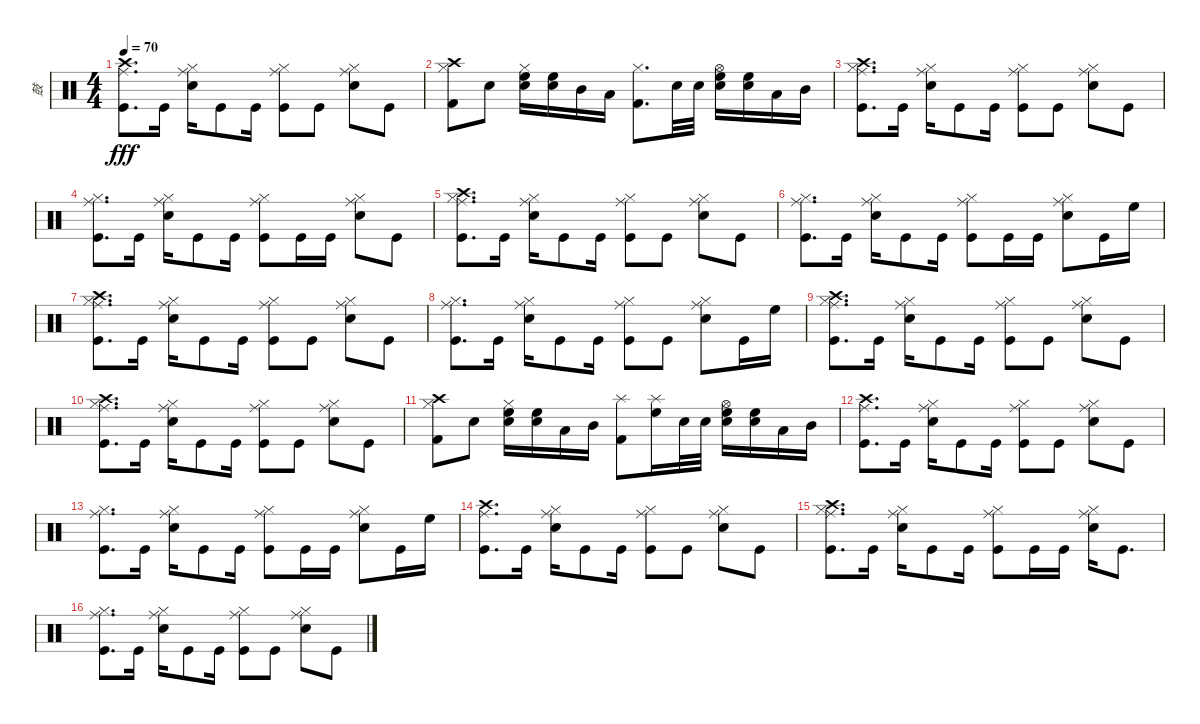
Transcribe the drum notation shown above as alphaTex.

\track ("鼓" "鼓") {instrument percussion}
\staff {score}
\articulation defaults
\ts (4 4)
\tempo 70
\clef neutral
\ks c
("Ride (middle)" "Crash high (hit)" "Kick (hit)").8{d dy fff} "Kick (hit)".16 ("Ride (middle)" "Hi-Hat (closed)" "Electric Snare (hit)").16 "Kick (hit)".8 "Kick (hit)".16 ("Ride (middle)" "Hi-Hat (closed)" "Kick (hit)").8 "Kick (hit)".8 ("Ride (middle)" "Hi-Hat (closed)" "Electric Snare (hit)").8 "Kick (hit)".8 |
("Crash high (hit)" "Hi-Hat (closed)" "Kick (hit) 2").8 "Snare (hit) 2".8 ("Hi-Hat (closed)" "High Floor Tom (hit)" "Electric Snare (hit)").16 ("High Floor Tom (hit)" "Electric Snare (hit)").16 "Mid Tom (hit)".16 "Low Tom (hit)".16 ("Hi-Hat (closed)" "Kick (hit) 2").8{d} "Snare (hit) 2".32 "Snare (hit) 2".32 ("Hi-Hat (open)" "High Floor Tom (hit)" "Electric Snare (hit)").16 ("High Floor Tom (hit)" "Electric Snare (hit)").16 "Low Tom (hit)".16 "Mid Tom (hit)".16 |
("Ride (middle)" "Crash high (hit)" "Hi-Hat (closed)" "Kick (hit)").8{d} "Kick (hit)".16 ("Ride (middle)" "Hi-Hat (closed)" "Electric Snare (hit)").16 "Kick (hit)".8 "Kick (hit)".16 ("Ride (middle)" "Hi-Hat (closed)" "Kick (hit)").8 "Kick (hit)".8 ("Ride (middle)" "Hi-Hat (closed)" "Electric Snare (hit)").8 "Kick (hit)".8 |
("Ride (middle)" "Hi-Hat (closed)" "Kick (hit)").8{d} "Kick (hit)".16 ("Ride (middle)" "Hi-Hat (closed)" "Electric Snare (hit)").16 "Kick (hit)".8 "Kick (hit)".16 ("Ride (middle)" "Hi-Hat (closed)" "Kick (hit)").8 "Kick (hit)".16 "Kick (hit)".16 ("Ride (middle)" "Hi-Hat (closed)" "Electric Snare (hit)").8 "Kick (hit)".8 |
("Ride (middle)" "Crash high (hit)" "Hi-Hat (closed)" "Kick (hit)").8{d} "Kick (hit)".16 ("Ride (middle)" "Hi-Hat (closed)" "Electric Snare (hit)").16 "Kick (hit)".8 "Kick (hit)".16 ("Ride (middle)" "Hi-Hat (closed)" "Kick (hit)").8 "Kick (hit)".8 ("Ride (middle)" "Hi-Hat (closed)" "Electric Snare (hit)").8 "Kick (hit)".8 |
("Ride (middle)" "Hi-Hat (closed)" "Kick (hit)").8{d} "Kick (hit)".16 ("Ride (middle)" "Hi-Hat (closed)" "Electric Snare (hit)").16 "Kick (hit)".8 "Kick (hit)".16 ("Ride (middle)" "Hi-Hat (closed)" "Kick (hit)").8 "Kick (hit)".16 "Kick (hit)".16 ("Ride (middle)" "Hi-Hat (closed)" "Electric Snare (hit)").8 "Kick (hit)".16 "High Floor Tom (hit)".16 |
("Ride (middle)" "Crash high (hit)" "Hi-Hat (closed)" "Kick (hit)").8{d} "Kick (hit)".16 ("Ride (middle)" "Hi-Hat (closed)" "Electric Snare (hit)").16 "Kick (hit)".8 "Kick (hit)".16 ("Ride (middle)" "Hi-Hat (closed)" "Kick (hit)").8 "Kick (hit)".8 ("Ride (middle)" "Hi-Hat (closed)" "Electric Snare (hit)").8 "Kick (hit)".8 |
("Ride (middle)" "Hi-Hat (closed)" "Kick (hit)").8{d} "Kick (hit)".16 ("Ride (middle)" "Hi-Hat (closed)" "Electric Snare (hit)").16 "Kick (hit)".8 "Kick (hit)".16 ("Ride (middle)" "Hi-Hat (closed)" "Kick (hit)").8 "Kick (hit)".8 ("Ride (middle)" "Hi-Hat (closed)" "Electric Snare (hit)").8 "Kick (hit)".16 "High Floor Tom (hit)".16 |
("Ride (middle)" "Crash high (hit)" "Hi-Hat (closed)" "Kick (hit)").8{d} "Kick (hit)".16 ("Ride (middle)" "Hi-Hat (closed)" "Electric Snare (hit)").16 "Kick (hit)".8 "Kick (hit)".16 ("Ride (middle)" "Hi-Hat (closed)" "Kick (hit)").8 "Kick (hit)".8 ("Ride (middle)" "Hi-Hat (closed)" "Electric Snare (hit)").8 "Kick (hit)".8 |
("Ride (middle)" "Crash high (hit)" "Hi-Hat (closed)" "Kick (hit)").8{d} "Kick (hit)".16 ("Ride (middle)" "Hi-Hat (closed)" "Electric Snare (hit)").16 "Kick (hit)".8 "Kick (hit)".16 ("Ride (middle)" "Hi-Hat (closed)" "Kick (hit)").8 "Kick (hit)".8 ("Ride (middle)" "Hi-Hat (closed)" "Electric Snare (hit)").8 "Kick (hit)".8 |
("Crash high (hit)" "Hi-Hat (closed)" "Kick (hit) 2").8 "Snare (hit) 2".8 ("Hi-Hat (closed)" "High Floor Tom (hit)" "Electric Snare (hit)").16 ("High Floor Tom (hit)" "Electric Snare (hit)").16 "Low Tom (hit)".16 "Mid Tom (hit)".16 ("Splash (hit)" "Kick (hit) 2").8 ("Splash (hit)" "High Floor Tom (hit)").16 "Snare (hit) 2".32 "Snare (hit) 2".32 ("Hi-Hat (open)" "High Floor Tom (hit)" "Electric Snare (hit)").16 ("High Floor Tom (hit)" "Electric Snare (hit)").16 "Low Tom (hit)".16 "Mid Tom (hit)".16 |
("Ride (middle)" "Crash high (hit)" "Kick (hit)").8{d} "Kick (hit)".16 ("Ride (middle)" "Hi-Hat (closed)" "Electric Snare (hit)").16 "Kick (hit)".8 "Kick (hit)".16 ("Ride (middle)" "Hi-Hat (closed)" "Kick (hit)").8 "Kick (hit)".8 ("Ride (middle)" "Hi-Hat (closed)" "Electric Snare (hit)").8 "Kick (hit)".8 |
("Ride (middle)" "Hi-Hat (closed)" "Kick (hit)").8{d} "Kick (hit)".16 ("Ride (middle)" "Hi-Hat (closed)" "Electric Snare (hit)").16 "Kick (hit)".8 "Kick (hit)".16 ("Ride (middle)" "Hi-Hat (closed)" "Kick (hit)").8 "Kick (hit)".16 "Kick (hit)".16 ("Ride (middle)" "Hi-Hat (closed)" "Electric Snare (hit)").8 "Kick (hit)".16 "High Floor Tom (hit)".16 |
("Ride (middle)" "Crash high (hit)" "Kick (hit)").8{d} "Kick (hit)".16 ("Ride (middle)" "Hi-Hat (closed)" "Electric Snare (hit)").16 "Kick (hit)".8 "Kick (hit)".16 ("Ride (middle)" "Hi-Hat (closed)" "Kick (hit)").8 "Kick (hit)".8 ("Ride (middle)" "Hi-Hat (closed)" "Electric Snare (hit)").8 "Kick (hit)".8 |
("Ride (middle)" "Crash high (hit)" "Hi-Hat (closed)" "Kick (hit)").8{d} "Kick (hit)".16 ("Ride (middle)" "Hi-Hat (closed)" "Electric Snare (hit)").16 "Kick (hit)".8 "Kick (hit)".16 ("Ride (middle)" "Hi-Hat (closed)" "Kick (hit)").8 "Kick (hit)".16 "Kick (hit)".16 ("Ride (middle)" "Hi-Hat (closed)" "Electric Snare (hit)").16 "Kick (hit)".8{d} |
("Ride (middle)" "Hi-Hat (closed)" "Kick (hit)").8{d} "Kick (hit)".16 ("Ride (middle)" "Hi-Hat (closed)" "Electric Snare (hit)").16 "Kick (hit)".8 "Kick (hit)".16 ("Ride (middle)" "Hi-Hat (closed)" "Kick (hit)").8 "Kick (hit)".8 ("Ride (middle)" "Hi-Hat (closed)" "Electric Snare (hit)").8 "Kick (hit)".8
